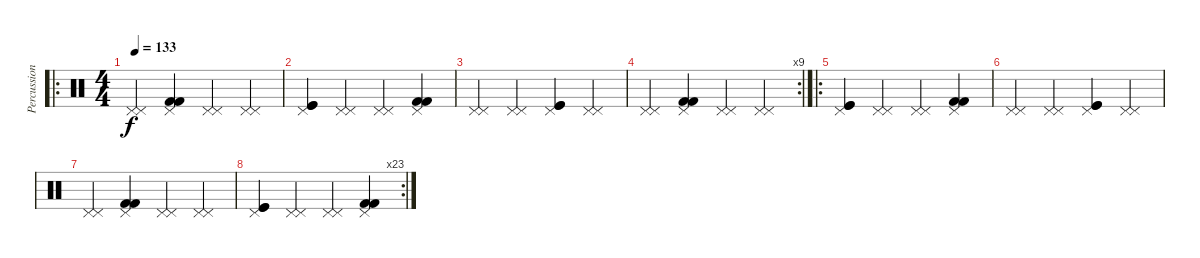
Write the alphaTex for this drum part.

\track ("Percussions" "Percussion") {instrument percussion}
\staff {score}
\articulation defaults
\ro
\ts (4 4)
\tempo 133
\clef neutral
\ks c
("Pedal Hi-Hat (hit)" "Pedal Hi-Hat (hit)").4{dy f} ("Pedal Hi-Hat (hit)" "Kick (hit) 2" "Kick (hit) 2").4 ("Pedal Hi-Hat (hit)" "Pedal Hi-Hat (hit)").4 ("Pedal Hi-Hat (hit)" "Pedal Hi-Hat (hit)").4 |
("Pedal Hi-Hat (hit)" "Kick (hit)" "Kick (hit)").4 ("Pedal Hi-Hat (hit)" "Pedal Hi-Hat (hit)").4 ("Pedal Hi-Hat (hit)" "Pedal Hi-Hat (hit)").4 ("Pedal Hi-Hat (hit)" "Kick (hit) 2" "Kick (hit) 2").4 |
("Pedal Hi-Hat (hit)" "Pedal Hi-Hat (hit)").4 ("Pedal Hi-Hat (hit)" "Pedal Hi-Hat (hit)").4 ("Pedal Hi-Hat (hit)" "Kick (hit)" "Kick (hit)").4 ("Pedal Hi-Hat (hit)" "Pedal Hi-Hat (hit)").4 |
\rc 9
("Pedal Hi-Hat (hit)" "Pedal Hi-Hat (hit)").4 ("Pedal Hi-Hat (hit)" "Kick (hit) 2" "Kick (hit) 2").4 ("Pedal Hi-Hat (hit)" "Pedal Hi-Hat (hit)").4 ("Pedal Hi-Hat (hit)" "Pedal Hi-Hat (hit)").4 |
\ro
("Pedal Hi-Hat (hit)" "Kick (hit)" "Kick (hit)").4 ("Pedal Hi-Hat (hit)" "Pedal Hi-Hat (hit)").4 ("Pedal Hi-Hat (hit)" "Pedal Hi-Hat (hit)").4 ("Pedal Hi-Hat (hit)" "Kick (hit) 2" "Kick (hit) 2").4 |
("Pedal Hi-Hat (hit)" "Pedal Hi-Hat (hit)").4 ("Pedal Hi-Hat (hit)" "Pedal Hi-Hat (hit)").4 ("Pedal Hi-Hat (hit)" "Kick (hit)" "Kick (hit)").4 ("Pedal Hi-Hat (hit)" "Pedal Hi-Hat (hit)").4 |
("Pedal Hi-Hat (hit)" "Pedal Hi-Hat (hit)").4 ("Pedal Hi-Hat (hit)" "Kick (hit) 2" "Kick (hit) 2").4 ("Pedal Hi-Hat (hit)" "Pedal Hi-Hat (hit)").4 ("Pedal Hi-Hat (hit)" "Pedal Hi-Hat (hit)").4 |
\rc 23
("Pedal Hi-Hat (hit)" "Kick (hit)" "Kick (hit)").4 ("Pedal Hi-Hat (hit)" "Pedal Hi-Hat (hit)").4 ("Pedal Hi-Hat (hit)" "Pedal Hi-Hat (hit)").4 ("Pedal Hi-Hat (hit)" "Kick (hit) 2" "Kick (hit) 2").4
